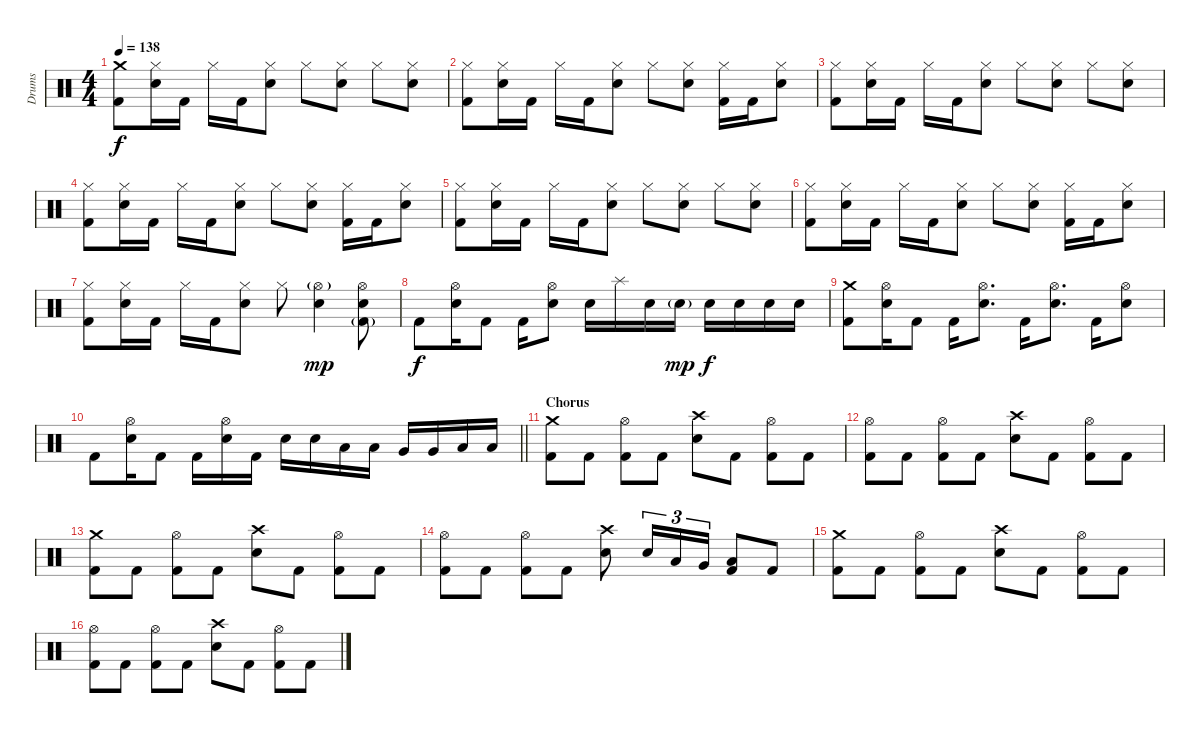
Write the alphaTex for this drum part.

\track ("Drums" "Drums") {instrument percussion}
\staff {score}
\articulation defaults
\ts (4 4)
\tempo 138
\clef neutral
\ks c
("Crash medium (hit)" "Kick (hit) 2").8{dy f} ("Hi-Hat (closed)" "Electric Snare (hit)").16 "Kick (hit) 2".16 "Hi-Hat (closed)".16 "Kick (hit) 2".16 ("Hi-Hat (closed)" "Electric Snare (hit)").8 "Hi-Hat (closed)".8 ("Hi-Hat (closed)" "Electric Snare (hit)").8 "Hi-Hat (closed)".8 ("Hi-Hat (closed)" "Electric Snare (hit)").8 |
("Hi-Hat (closed)" "Kick (hit) 2").8 ("Hi-Hat (closed)" "Electric Snare (hit)").16 "Kick (hit) 2".16 "Hi-Hat (closed)".16 "Kick (hit) 2".16 ("Hi-Hat (closed)" "Electric Snare (hit)").8 "Hi-Hat (closed)".8 ("Hi-Hat (closed)" "Electric Snare (hit)").8 ("Hi-Hat (closed)" "Kick (hit) 2").16 "Kick (hit) 2".16 ("Hi-Hat (closed)" "Electric Snare (hit)").8 |
("Hi-Hat (closed)" "Kick (hit) 2").8 ("Hi-Hat (closed)" "Electric Snare (hit)").16 "Kick (hit) 2".16 "Hi-Hat (closed)".16 "Kick (hit) 2".16 ("Hi-Hat (closed)" "Electric Snare (hit)").8 "Hi-Hat (closed)".8 ("Hi-Hat (closed)" "Electric Snare (hit)").8 "Hi-Hat (closed)".8 ("Hi-Hat (closed)" "Electric Snare (hit)").8 |
("Hi-Hat (closed)" "Kick (hit) 2").8 ("Hi-Hat (closed)" "Electric Snare (hit)").16 "Kick (hit) 2".16 "Hi-Hat (closed)".16 "Kick (hit) 2".16 ("Hi-Hat (closed)" "Electric Snare (hit)").8 "Hi-Hat (closed)".8 ("Hi-Hat (closed)" "Electric Snare (hit)").8 ("Hi-Hat (closed)" "Kick (hit) 2").16 "Kick (hit) 2".16 ("Hi-Hat (closed)" "Electric Snare (hit)").8 |
("Hi-Hat (closed)" "Kick (hit) 2").8 ("Hi-Hat (closed)" "Electric Snare (hit)").16 "Kick (hit) 2".16 "Hi-Hat (closed)".16 "Kick (hit) 2".16 ("Hi-Hat (closed)" "Electric Snare (hit)").8 "Hi-Hat (closed)".8 ("Hi-Hat (closed)" "Electric Snare (hit)").8 "Hi-Hat (closed)".8 ("Hi-Hat (closed)" "Electric Snare (hit)").8 |
("Hi-Hat (closed)" "Kick (hit) 2").8 ("Hi-Hat (closed)" "Electric Snare (hit)").16 "Kick (hit) 2".16 "Hi-Hat (closed)".16 "Kick (hit) 2".16 ("Hi-Hat (closed)" "Electric Snare (hit)").8 "Hi-Hat (closed)".8 ("Hi-Hat (closed)" "Electric Snare (hit)").8 ("Hi-Hat (closed)" "Kick (hit) 2").16 "Kick (hit) 2".16 ("Hi-Hat (closed)" "Electric Snare (hit)").8 |
("Hi-Hat (closed)" "Kick (hit) 2").8 ("Hi-Hat (closed)" "Electric Snare (hit)").16 "Kick (hit) 2".16 "Hi-Hat (closed)".16 "Kick (hit) 2".16 ("Hi-Hat (closed)" "Electric Snare (hit)").8 "Hi-Hat (closed)".8 ("Hi-Hat (open)"{g} "Electric Snare (hit)").4{dy mp} ("Hi-Hat (open)" "Electric Snare (hit)" "Kick (hit) 2"{g}).8 |
"Kick (hit) 2".8{dy f} ("Hi-Hat (open)" "Electric Snare (hit)").16 "Kick (hit) 2".8 "Kick (hit) 2".16 ("Hi-Hat (open)" "Electric Snare (hit)").8 "Electric Snare (hit)".16 "Splash (hit)".16 "Electric Snare (hit)".16 "Electric Snare (hit)"{g}.16{dy mp} "Electric Snare (hit)".16{dy f} "Electric Snare (hit)".16 "Electric Snare (hit)".16 "Electric Snare (hit)".16 |
("Crash medium (hit)" "Kick (hit) 2").8 ("Hi-Hat (open)" "Electric Snare (hit)").16 "Kick (hit) 2".8 "Kick (hit) 2".16 ("Hi-Hat (open)" "Electric Snare (hit)").8{d} "Kick (hit) 2".16 ("Hi-Hat (open)" "Electric Snare (hit)").8{d} "Kick (hit) 2".16 ("Hi-Hat (open)" "Electric Snare (hit)").8 |
\barLineRight lightlight "Kick (hit) 2".8
("Hi-Hat (open)" "Electric Snare (hit)").16 "Kick (hit) 2".8 "Kick (hit) 2".16 ("Hi-Hat (open)" "Electric Snare (hit)").16 "Kick (hit) 2".16 "Electric Snare (hit)".16 "Electric Snare (hit)".16 "Low Tom (hit)".16 "Low Tom (hit)".16 "Very Low Tom (hit)".16 "Very Low Tom (hit)".16 "Low Floor Tom (hit)".16 "Low Floor Tom (hit)".16 |
\section ("" "Chorus")
("Crash medium (hit)" "Kick (hit) 2").8 "Kick (hit) 2".8 ("Hi-Hat (open)" "Kick (hit) 2").8 "Kick (hit) 2".8 ("Crash high (hit)" "Electric Snare (hit)").8 "Kick (hit) 2".8 ("Hi-Hat (open)" "Kick (hit) 2").8 "Kick (hit) 2".8 |
("Hi-Hat (open)" "Kick (hit) 2").8 "Kick (hit) 2".8 ("Hi-Hat (open)" "Kick (hit) 2").8 "Kick (hit) 2".8 ("Crash high (hit)" "Electric Snare (hit)").8 "Kick (hit) 2".8 ("Hi-Hat (open)" "Kick (hit) 2").8 "Kick (hit) 2".8 |
("Crash medium (hit)" "Kick (hit) 2").8 "Kick (hit) 2".8 ("Hi-Hat (open)" "Kick (hit) 2").8 "Kick (hit) 2".8 ("Crash high (hit)" "Electric Snare (hit)").8 "Kick (hit) 2".8 ("Hi-Hat (open)" "Kick (hit) 2").8 "Kick (hit) 2".8 |
("Hi-Hat (open)" "Kick (hit) 2").8 "Kick (hit) 2".8 ("Hi-Hat (open)" "Kick (hit) 2").8 "Kick (hit) 2".8 ("Crash high (hit)" "Electric Snare (hit)").8 "Electric Snare (hit)".16{tu (3 2)} "Low Tom (hit)".16{tu (3 2)} "Very Low Tom (hit)".16{tu (3 2)} ("Low Floor Tom (hit)" "Kick (hit) 2").8 "Kick (hit) 2".8 |
("Crash medium (hit)" "Kick (hit) 2").8 "Kick (hit) 2".8 ("Hi-Hat (open)" "Kick (hit) 2").8 "Kick (hit) 2".8 ("Crash high (hit)" "Electric Snare (hit)").8 "Kick (hit) 2".8 ("Hi-Hat (open)" "Kick (hit) 2").8 "Kick (hit) 2".8 |
("Hi-Hat (open)" "Kick (hit) 2").8 "Kick (hit) 2".8 ("Hi-Hat (open)" "Kick (hit) 2").8 "Kick (hit) 2".8 ("Crash high (hit)" "Electric Snare (hit)").8 "Kick (hit) 2".8 ("Hi-Hat (open)" "Kick (hit) 2").8 "Kick (hit) 2".8
